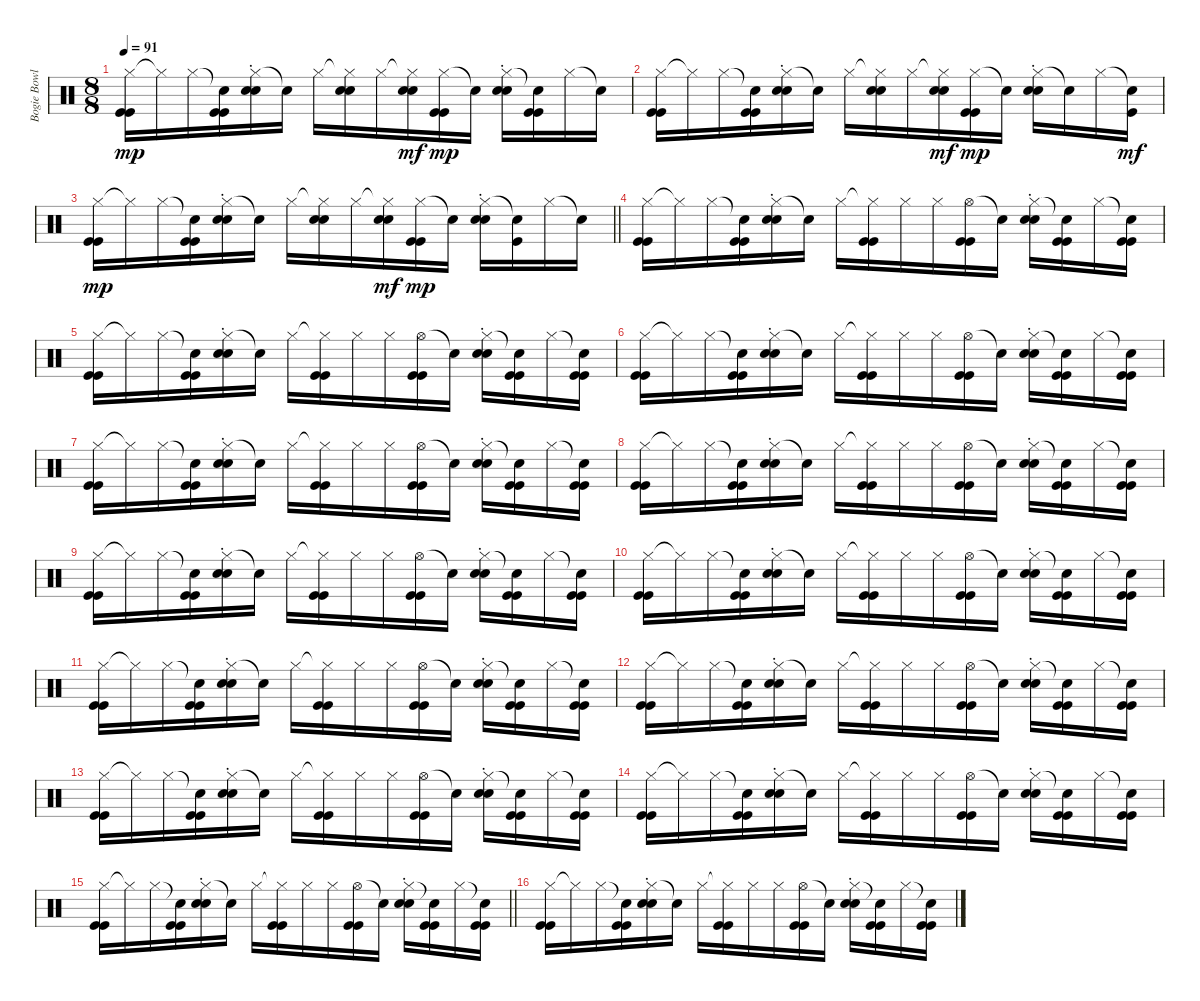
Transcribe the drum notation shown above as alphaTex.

\track ("Bogie Bowles Drums" "Bogie Bowl") {instrument percussion}
\staff {score}
\articulation defaults
\ts (8 8)
\tempo 91
\clef neutral
\ks c
("Hi-Hat (closed)" "Kick (hit)" "Kick (hit)").16{dy mp} "Hi-Hat (closed)"{t}.16 "Hi-Hat (closed)".16 ("Snare (hit)"{t} "Kick (hit)" "Kick (hit)").16 ("Hi-Hat (closed)" "Snare (hit) 2"{st} "Snare (hit) 2").16 "Snare (hit)"{t}.16 "Hi-Hat (closed)".16 ("Hi-Hat (closed)"{t} "Snare (hit) 2" "Snare (hit) 2").16 "Hi-Hat (closed)".16 ("Hi-Hat (closed)"{t} "Snare (hit) 2" "Snare (hit) 2").16{dy mf} ("Hi-Hat (closed)" "Kick (hit)" "Kick (hit)").16{dy mp} "Snare (hit)"{t}.16 ("Hi-Hat (closed)" "Snare (hit) 2"{st} "Snare (hit) 2").16 ("Snare (hit)"{t} "Kick (hit)" "Kick (hit)").16 "Hi-Hat (closed)".16 "Snare (hit)"{t}.16 |
("Hi-Hat (closed)" "Kick (hit)" "Kick (hit)").16 "Hi-Hat (closed)"{t}.16 "Hi-Hat (closed)".16 ("Snare (hit)"{t} "Kick (hit)" "Kick (hit)").16 ("Hi-Hat (closed)" "Snare (hit) 2"{st} "Snare (hit) 2").16 "Snare (hit)"{t}.16 "Hi-Hat (closed)".16 ("Hi-Hat (closed)"{t} "Snare (hit) 2" "Snare (hit) 2").16 "Hi-Hat (closed)".16 ("Hi-Hat (closed)"{t} "Snare (hit) 2" "Snare (hit) 2").16{dy mf} ("Hi-Hat (closed)" "Kick (hit)" "Kick (hit)").16{dy mp} "Snare (hit)"{t}.16 ("Hi-Hat (closed)" "Snare (hit) 2"{st} "Snare (hit) 2").16 "Snare (hit)"{t}.16 "Hi-Hat (closed)".16 ("Snare (hit)"{t} "Kick (hit)").16{dy mf} |
\barLineRight lightlight
("Hi-Hat (closed)" "Kick (hit)" "Kick (hit)").16{dy mp} "Hi-Hat (closed)"{t}.16 "Hi-Hat (closed)".16 ("Snare (hit)"{t} "Kick (hit)" "Kick (hit)").16 ("Hi-Hat (closed)" "Snare (hit) 2"{st} "Snare (hit) 2").16 "Snare (hit)"{t}.16 "Hi-Hat (closed)".16 ("Hi-Hat (closed)"{t} "Snare (hit) 2" "Snare (hit) 2").16 "Hi-Hat (closed)".16 ("Hi-Hat (closed)"{t} "Snare (hit) 2" "Snare (hit) 2").16{dy mf} ("Hi-Hat (closed)" "Kick (hit)" "Kick (hit)").16{dy mp} "Snare (hit)"{t}.16 ("Hi-Hat (closed)" "Snare (hit) 2"{st} "Snare (hit) 2").16 ("Snare (hit)"{t} "Kick (hit)").16 "Hi-Hat (closed)".16 "Snare (hit)"{t}.16 |
("Hi-Hat (closed)" "Kick (hit)" "Kick (hit)").16 "Hi-Hat (closed)"{t}.16 "Hi-Hat (closed)".16 ("Snare (hit)"{t} "Kick (hit)" "Kick (hit)").16 ("Hi-Hat (closed)" "Snare (hit) 2"{st} "Snare (hit) 2").16 "Snare (hit)"{t}.16 "Hi-Hat (closed)".16 ("Hi-Hat (closed)"{t} "Kick (hit)" "Kick (hit)").16 "Hi-Hat (closed)".16 "Hi-Hat (closed)".16 ("Hi-Hat (open)" "Kick (hit)" "Kick (hit)").16 "Snare (hit)"{t}.16 ("Hi-Hat (closed)" "Snare (hit) 2"{st} "Snare (hit) 2").16 ("Snare (hit)"{t} "Kick (hit)" "Kick (hit)").16 "Hi-Hat (closed)".16 ("Snare (hit)"{t} "Kick (hit)" "Kick (hit)").16 |
("Hi-Hat (closed)" "Kick (hit)" "Kick (hit)").16 "Hi-Hat (closed)"{t}.16 "Hi-Hat (closed)".16 ("Snare (hit)"{t} "Kick (hit)" "Kick (hit)").16 ("Hi-Hat (closed)" "Snare (hit) 2"{st} "Snare (hit) 2").16 "Snare (hit)"{t}.16 "Hi-Hat (closed)".16 ("Hi-Hat (closed)"{t} "Kick (hit)" "Kick (hit)").16 "Hi-Hat (closed)".16 "Hi-Hat (closed)".16 ("Hi-Hat (open)" "Kick (hit)" "Kick (hit)").16 "Snare (hit)"{t}.16 ("Hi-Hat (closed)" "Snare (hit) 2"{st} "Snare (hit) 2").16 ("Snare (hit)"{t} "Kick (hit)" "Kick (hit)").16 "Hi-Hat (closed)".16 ("Snare (hit)"{t} "Kick (hit)" "Kick (hit)").16 |
("Hi-Hat (closed)" "Kick (hit)" "Kick (hit)").16 "Hi-Hat (closed)"{t}.16 "Hi-Hat (closed)".16 ("Snare (hit)"{t} "Kick (hit)" "Kick (hit)").16 ("Hi-Hat (closed)" "Snare (hit) 2"{st} "Snare (hit) 2").16 "Snare (hit)"{t}.16 "Hi-Hat (closed)".16 ("Hi-Hat (closed)"{t} "Kick (hit)" "Kick (hit)").16 "Hi-Hat (closed)".16 "Hi-Hat (closed)".16 ("Hi-Hat (open)" "Kick (hit)" "Kick (hit)").16 "Snare (hit)"{t}.16 ("Hi-Hat (closed)" "Snare (hit) 2"{st} "Snare (hit) 2").16 ("Snare (hit)"{t} "Kick (hit)" "Kick (hit)").16 "Hi-Hat (closed)".16 ("Snare (hit)"{t} "Kick (hit)" "Kick (hit)").16 |
("Hi-Hat (closed)" "Kick (hit)" "Kick (hit)").16 "Hi-Hat (closed)"{t}.16 "Hi-Hat (closed)".16 ("Snare (hit)"{t} "Kick (hit)" "Kick (hit)").16 ("Hi-Hat (closed)" "Snare (hit) 2"{st} "Snare (hit) 2").16 "Snare (hit)"{t}.16 "Hi-Hat (closed)".16 ("Hi-Hat (closed)"{t} "Kick (hit)" "Kick (hit)").16 "Hi-Hat (closed)".16 "Hi-Hat (closed)".16 ("Hi-Hat (open)" "Kick (hit)" "Kick (hit)").16 "Snare (hit)"{t}.16 ("Hi-Hat (closed)" "Snare (hit) 2"{st} "Snare (hit) 2").16 ("Snare (hit)"{t} "Kick (hit)" "Kick (hit)").16 "Hi-Hat (closed)".16 ("Snare (hit)"{t} "Kick (hit)" "Kick (hit)").16 |
("Hi-Hat (closed)" "Kick (hit)" "Kick (hit)").16 "Hi-Hat (closed)"{t}.16 "Hi-Hat (closed)".16 ("Snare (hit)"{t} "Kick (hit)" "Kick (hit)").16 ("Hi-Hat (closed)" "Snare (hit) 2"{st} "Snare (hit) 2").16 "Snare (hit)"{t}.16 "Hi-Hat (closed)".16 ("Hi-Hat (closed)"{t} "Kick (hit)" "Kick (hit)").16 "Hi-Hat (closed)".16 "Hi-Hat (closed)".16 ("Hi-Hat (open)" "Kick (hit)" "Kick (hit)").16 "Snare (hit)"{t}.16 ("Hi-Hat (closed)" "Snare (hit) 2"{st} "Snare (hit) 2").16 ("Snare (hit)"{t} "Kick (hit)" "Kick (hit)").16 "Hi-Hat (closed)".16 ("Snare (hit)"{t} "Kick (hit)" "Kick (hit)").16 |
("Hi-Hat (closed)" "Kick (hit)" "Kick (hit)").16 "Hi-Hat (closed)"{t}.16 "Hi-Hat (closed)".16 ("Snare (hit)"{t} "Kick (hit)" "Kick (hit)").16 ("Hi-Hat (closed)" "Snare (hit) 2"{st} "Snare (hit) 2").16 "Snare (hit)"{t}.16 "Hi-Hat (closed)".16 ("Hi-Hat (closed)"{t} "Kick (hit)" "Kick (hit)").16 "Hi-Hat (closed)".16 "Hi-Hat (closed)".16 ("Hi-Hat (open)" "Kick (hit)" "Kick (hit)").16 "Snare (hit)"{t}.16 ("Hi-Hat (closed)" "Snare (hit) 2"{st} "Snare (hit) 2").16 ("Snare (hit)"{t} "Kick (hit)" "Kick (hit)").16 "Hi-Hat (closed)".16 ("Snare (hit)"{t} "Kick (hit)" "Kick (hit)").16 |
("Hi-Hat (closed)" "Kick (hit)" "Kick (hit)").16 "Hi-Hat (closed)"{t}.16 "Hi-Hat (closed)".16 ("Snare (hit)"{t} "Kick (hit)" "Kick (hit)").16 ("Hi-Hat (closed)" "Snare (hit) 2"{st} "Snare (hit) 2").16 "Snare (hit)"{t}.16 "Hi-Hat (closed)".16 ("Hi-Hat (closed)"{t} "Kick (hit)" "Kick (hit)").16 "Hi-Hat (closed)".16 "Hi-Hat (closed)".16 ("Hi-Hat (open)" "Kick (hit)" "Kick (hit)").16 "Snare (hit)"{t}.16 ("Hi-Hat (closed)" "Snare (hit) 2"{st} "Snare (hit) 2").16 ("Snare (hit)"{t} "Kick (hit)" "Kick (hit)").16 "Hi-Hat (closed)".16 ("Snare (hit)"{t} "Kick (hit)" "Kick (hit)").16 |
("Hi-Hat (closed)" "Kick (hit)" "Kick (hit)").16 "Hi-Hat (closed)"{t}.16 "Hi-Hat (closed)".16 ("Snare (hit)"{t} "Kick (hit)" "Kick (hit)").16 ("Hi-Hat (closed)" "Snare (hit) 2"{st} "Snare (hit) 2").16 "Snare (hit)"{t}.16 "Hi-Hat (closed)".16 ("Hi-Hat (closed)"{t} "Kick (hit)" "Kick (hit)").16 "Hi-Hat (closed)".16 "Hi-Hat (closed)".16 ("Hi-Hat (open)" "Kick (hit)" "Kick (hit)").16 "Snare (hit)"{t}.16 ("Hi-Hat (closed)" "Snare (hit) 2"{st} "Snare (hit) 2").16 ("Snare (hit)"{t} "Kick (hit)" "Kick (hit)").16 "Hi-Hat (closed)".16 ("Snare (hit)"{t} "Kick (hit)" "Kick (hit)").16 |
("Hi-Hat (closed)" "Kick (hit)" "Kick (hit)").16 "Hi-Hat (closed)"{t}.16 "Hi-Hat (closed)".16 ("Snare (hit)"{t} "Kick (hit)" "Kick (hit)").16 ("Hi-Hat (closed)" "Snare (hit) 2"{st} "Snare (hit) 2").16 "Snare (hit)"{t}.16 "Hi-Hat (closed)".16 ("Hi-Hat (closed)"{t} "Kick (hit)" "Kick (hit)").16 "Hi-Hat (closed)".16 "Hi-Hat (closed)".16 ("Hi-Hat (open)" "Kick (hit)" "Kick (hit)").16 "Snare (hit)"{t}.16 ("Hi-Hat (closed)" "Snare (hit) 2"{st} "Snare (hit) 2").16 ("Snare (hit)"{t} "Kick (hit)" "Kick (hit)").16 "Hi-Hat (closed)".16 ("Snare (hit)"{t} "Kick (hit)" "Kick (hit)").16 |
("Hi-Hat (closed)" "Kick (hit)" "Kick (hit)").16 "Hi-Hat (closed)"{t}.16 "Hi-Hat (closed)".16 ("Snare (hit)"{t} "Kick (hit)" "Kick (hit)").16 ("Hi-Hat (closed)" "Snare (hit) 2"{st} "Snare (hit) 2").16 "Snare (hit)"{t}.16 "Hi-Hat (closed)".16 ("Hi-Hat (closed)"{t} "Kick (hit)" "Kick (hit)").16 "Hi-Hat (closed)".16 "Hi-Hat (closed)".16 ("Hi-Hat (open)" "Kick (hit)" "Kick (hit)").16 "Snare (hit)"{t}.16 ("Hi-Hat (closed)" "Snare (hit) 2"{st} "Snare (hit) 2").16 ("Snare (hit)"{t} "Kick (hit)" "Kick (hit)").16 "Hi-Hat (closed)".16 ("Snare (hit)"{t} "Kick (hit)" "Kick (hit)").16 |
("Hi-Hat (closed)" "Kick (hit)" "Kick (hit)").16 "Hi-Hat (closed)"{t}.16 "Hi-Hat (closed)".16 ("Snare (hit)"{t} "Kick (hit)" "Kick (hit)").16 ("Hi-Hat (closed)" "Snare (hit) 2"{st} "Snare (hit) 2").16 "Snare (hit)"{t}.16 "Hi-Hat (closed)".16 ("Hi-Hat (closed)"{t} "Kick (hit)" "Kick (hit)").16 "Hi-Hat (closed)".16 "Hi-Hat (closed)".16 ("Hi-Hat (open)" "Kick (hit)" "Kick (hit)").16 "Snare (hit)"{t}.16 ("Hi-Hat (closed)" "Snare (hit) 2"{st} "Snare (hit) 2").16 ("Snare (hit)"{t} "Kick (hit)" "Kick (hit)").16 "Hi-Hat (closed)".16 ("Snare (hit)"{t} "Kick (hit)" "Kick (hit)").16 |
\barLineRight lightlight
("Hi-Hat (closed)" "Kick (hit)" "Kick (hit)").16 "Hi-Hat (closed)"{t}.16 "Hi-Hat (closed)".16 ("Snare (hit)"{t} "Kick (hit)" "Kick (hit)").16 ("Hi-Hat (closed)" "Snare (hit) 2"{st} "Snare (hit) 2").16 "Snare (hit)"{t}.16 "Hi-Hat (closed)".16 ("Hi-Hat (closed)"{t} "Kick (hit)" "Kick (hit)").16 "Hi-Hat (closed)".16 "Hi-Hat (closed)".16 ("Hi-Hat (open)" "Kick (hit)" "Kick (hit)").16 "Snare (hit)"{t}.16 ("Hi-Hat (closed)" "Snare (hit) 2"{st} "Snare (hit) 2").16 ("Snare (hit)"{t} "Kick (hit)" "Kick (hit)").16 "Hi-Hat (closed)".16 ("Snare (hit)"{t} "Kick (hit)" "Kick (hit)").16 |
("Hi-Hat (closed)" "Kick (hit)" "Kick (hit)").16 "Hi-Hat (closed)"{t}.16 "Hi-Hat (closed)".16 ("Snare (hit)"{t} "Kick (hit)" "Kick (hit)").16 ("Hi-Hat (closed)" "Snare (hit) 2"{st} "Snare (hit) 2").16 "Snare (hit)"{t}.16 "Hi-Hat (closed)".16 ("Hi-Hat (closed)"{t} "Kick (hit)" "Kick (hit)").16 "Hi-Hat (closed)".16 "Hi-Hat (closed)".16 ("Hi-Hat (open)" "Kick (hit)" "Kick (hit)").16 "Snare (hit)"{t}.16 ("Hi-Hat (closed)" "Snare (hit) 2"{st} "Snare (hit) 2").16 ("Snare (hit)"{t} "Kick (hit)" "Kick (hit)").16 "Hi-Hat (closed)".16 ("Snare (hit)"{t} "Kick (hit)" "Kick (hit)").16
